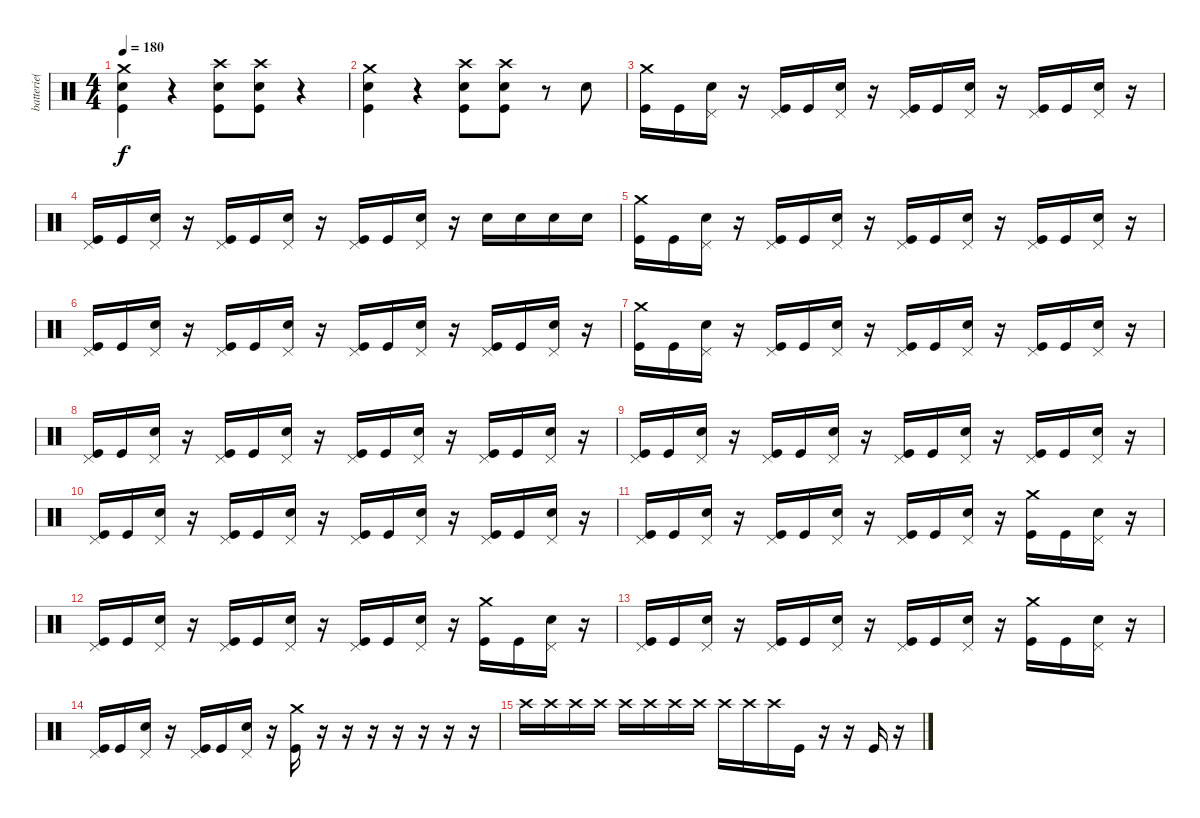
\track ("batterie( Rob )" "batterie( ") {instrument percussion}
\staff {score}
\articulation defaults
\ts (4 4)
\tempo 180
\clef neutral
\ks c
("Crash medium (hit)" "Snare (hit) 2" "Kick (hit)").4{dy f} r.4 ("Crash high (hit)" "Snare (hit) 2" "Kick (hit)").8 ("Crash high (hit)" "Snare (hit) 2" "Kick (hit)").8 r.4 |
("Crash medium (hit)" "Snare (hit) 2" "Kick (hit)").4 r.4 ("Crash high (hit)" "Snare (hit) 2" "Kick (hit)").8 ("Crash high (hit)" "Snare (hit) 2" "Kick (hit)").8 r.8 "Snare (hit) 2".8 |
("Crash medium (hit)" "Kick (hit)").16 "Kick (hit)".16 ("Pedal Hi-Hat (hit)" "Snare (hit) 2").16 r.16 ("Pedal Hi-Hat (hit)" "Kick (hit)").16 "Kick (hit)".16 ("Pedal Hi-Hat (hit)" "Snare (hit) 2").16 r.16 ("Pedal Hi-Hat (hit)" "Kick (hit)").16 "Kick (hit)".16 ("Pedal Hi-Hat (hit)" "Snare (hit) 2").16 r.16 ("Pedal Hi-Hat (hit)" "Kick (hit)").16 "Kick (hit)".16 ("Pedal Hi-Hat (hit)" "Snare (hit) 2").16 r.16 |
("Pedal Hi-Hat (hit)" "Kick (hit)").16 "Kick (hit)".16 ("Pedal Hi-Hat (hit)" "Snare (hit) 2").16 r.16 ("Pedal Hi-Hat (hit)" "Kick (hit)").16 "Kick (hit)".16 ("Pedal Hi-Hat (hit)" "Snare (hit) 2").16 r.16 ("Pedal Hi-Hat (hit)" "Kick (hit)").16 "Kick (hit)".16 ("Pedal Hi-Hat (hit)" "Snare (hit) 2").16 r.16 "Snare (hit) 2".16 "Snare (hit) 2".16 "Snare (hit) 2".16 "Snare (hit) 2".16 |
("Crash medium (hit)" "Kick (hit)").16 "Kick (hit)".16 ("Pedal Hi-Hat (hit)" "Snare (hit) 2").16 r.16 ("Pedal Hi-Hat (hit)" "Kick (hit)").16 "Kick (hit)".16 ("Pedal Hi-Hat (hit)" "Snare (hit) 2").16 r.16 ("Pedal Hi-Hat (hit)" "Kick (hit)").16 "Kick (hit)".16 ("Pedal Hi-Hat (hit)" "Snare (hit) 2").16 r.16 ("Pedal Hi-Hat (hit)" "Kick (hit)").16 "Kick (hit)".16 ("Pedal Hi-Hat (hit)" "Snare (hit) 2").16 r.16 |
("Pedal Hi-Hat (hit)" "Kick (hit)").16 "Kick (hit)".16 ("Pedal Hi-Hat (hit)" "Snare (hit) 2").16 r.16 ("Pedal Hi-Hat (hit)" "Kick (hit)").16 "Kick (hit)".16 ("Pedal Hi-Hat (hit)" "Snare (hit) 2").16 r.16 ("Pedal Hi-Hat (hit)" "Kick (hit)").16 "Kick (hit)".16 ("Pedal Hi-Hat (hit)" "Snare (hit) 2").16 r.16 ("Pedal Hi-Hat (hit)" "Kick (hit)").16 "Kick (hit)".16 ("Pedal Hi-Hat (hit)" "Snare (hit) 2").16 r.16 |
("Crash medium (hit)" "Kick (hit)").16 "Kick (hit)".16 ("Pedal Hi-Hat (hit)" "Snare (hit) 2").16 r.16 ("Pedal Hi-Hat (hit)" "Kick (hit)").16 "Kick (hit)".16 ("Pedal Hi-Hat (hit)" "Snare (hit) 2").16 r.16 ("Pedal Hi-Hat (hit)" "Kick (hit)").16 "Kick (hit)".16 ("Pedal Hi-Hat (hit)" "Snare (hit) 2").16 r.16 ("Pedal Hi-Hat (hit)" "Kick (hit)").16 "Kick (hit)".16 ("Pedal Hi-Hat (hit)" "Snare (hit) 2").16 r.16 |
("Pedal Hi-Hat (hit)" "Kick (hit)").16 "Kick (hit)".16 ("Pedal Hi-Hat (hit)" "Snare (hit) 2").16 r.16 ("Pedal Hi-Hat (hit)" "Kick (hit)").16 "Kick (hit)".16 ("Pedal Hi-Hat (hit)" "Snare (hit) 2").16 r.16 ("Pedal Hi-Hat (hit)" "Kick (hit)").16 "Kick (hit)".16 ("Pedal Hi-Hat (hit)" "Snare (hit) 2").16 r.16 ("Pedal Hi-Hat (hit)" "Kick (hit)").16 "Kick (hit)".16 ("Pedal Hi-Hat (hit)" "Snare (hit) 2").16 r.16 |
("Pedal Hi-Hat (hit)" "Kick (hit)").16 "Kick (hit)".16 ("Pedal Hi-Hat (hit)" "Snare (hit) 2").16 r.16 ("Pedal Hi-Hat (hit)" "Kick (hit)").16 "Kick (hit)".16 ("Pedal Hi-Hat (hit)" "Snare (hit) 2").16 r.16 ("Pedal Hi-Hat (hit)" "Kick (hit)").16 "Kick (hit)".16 ("Pedal Hi-Hat (hit)" "Snare (hit) 2").16 r.16 ("Pedal Hi-Hat (hit)" "Kick (hit)").16 "Kick (hit)".16 ("Pedal Hi-Hat (hit)" "Snare (hit) 2").16 r.16 |
("Pedal Hi-Hat (hit)" "Kick (hit)").16 "Kick (hit)".16 ("Pedal Hi-Hat (hit)" "Snare (hit) 2").16 r.16 ("Pedal Hi-Hat (hit)" "Kick (hit)").16 "Kick (hit)".16 ("Pedal Hi-Hat (hit)" "Snare (hit) 2").16 r.16 ("Pedal Hi-Hat (hit)" "Kick (hit)").16 "Kick (hit)".16 ("Pedal Hi-Hat (hit)" "Snare (hit) 2").16 r.16 ("Pedal Hi-Hat (hit)" "Kick (hit)").16 "Kick (hit)".16 ("Pedal Hi-Hat (hit)" "Snare (hit) 2").16 r.16 |
("Pedal Hi-Hat (hit)" "Kick (hit)").16 "Kick (hit)".16 ("Pedal Hi-Hat (hit)" "Snare (hit) 2").16 r.16 ("Pedal Hi-Hat (hit)" "Kick (hit)").16 "Kick (hit)".16 ("Pedal Hi-Hat (hit)" "Snare (hit) 2").16 r.16 ("Pedal Hi-Hat (hit)" "Kick (hit)").16 "Kick (hit)".16 ("Pedal Hi-Hat (hit)" "Snare (hit) 2").16 r.16 ("Crash medium (hit)" "Kick (hit)").16 "Kick (hit)".16 ("Pedal Hi-Hat (hit)" "Snare (hit) 2").16 r.16 |
("Pedal Hi-Hat (hit)" "Kick (hit)").16 "Kick (hit)".16 ("Pedal Hi-Hat (hit)" "Snare (hit) 2").16 r.16 ("Pedal Hi-Hat (hit)" "Kick (hit)").16 "Kick (hit)".16 ("Pedal Hi-Hat (hit)" "Snare (hit) 2").16 r.16 ("Pedal Hi-Hat (hit)" "Kick (hit)").16 "Kick (hit)".16 ("Pedal Hi-Hat (hit)" "Snare (hit) 2").16 r.16 ("Crash medium (hit)" "Kick (hit)").16 "Kick (hit)".16 ("Pedal Hi-Hat (hit)" "Snare (hit) 2").16 r.16 |
("Pedal Hi-Hat (hit)" "Kick (hit)").16 "Kick (hit)".16 ("Pedal Hi-Hat (hit)" "Snare (hit) 2").16 r.16 ("Pedal Hi-Hat (hit)" "Kick (hit)").16 "Kick (hit)".16 ("Pedal Hi-Hat (hit)" "Snare (hit) 2").16 r.16 ("Pedal Hi-Hat (hit)" "Kick (hit)").16 "Kick (hit)".16 ("Pedal Hi-Hat (hit)" "Snare (hit) 2").16 r.16 ("Crash medium (hit)" "Kick (hit)").16 "Kick (hit)".16 ("Pedal Hi-Hat (hit)" "Snare (hit) 2").16 r.16 |
("Pedal Hi-Hat (hit)" "Kick (hit)").16 "Kick (hit)".16 ("Pedal Hi-Hat (hit)" "Snare (hit) 2").16 r.16 ("Pedal Hi-Hat (hit)" "Kick (hit)").16 "Kick (hit)".16 ("Pedal Hi-Hat (hit)" "Snare (hit) 2").16 r.16 ("Crash medium (hit)" "Kick (hit)").16 r.16 r.16 r.16 r.16 r.16 r.16 r.16 |
"Crash high (hit)".16 "Crash high (hit)".16 "Crash high (hit)".16 "Crash high (hit)".16 "Crash high (hit)".16 "Crash high (hit)".16 "Crash high (hit)".16 "Crash high (hit)".16 "Crash high (hit)".16 "Crash high (hit)".16 "Crash high (hit)".16 "Kick (hit)".16 r.16 r.16 "Kick (hit)".16 r.16
